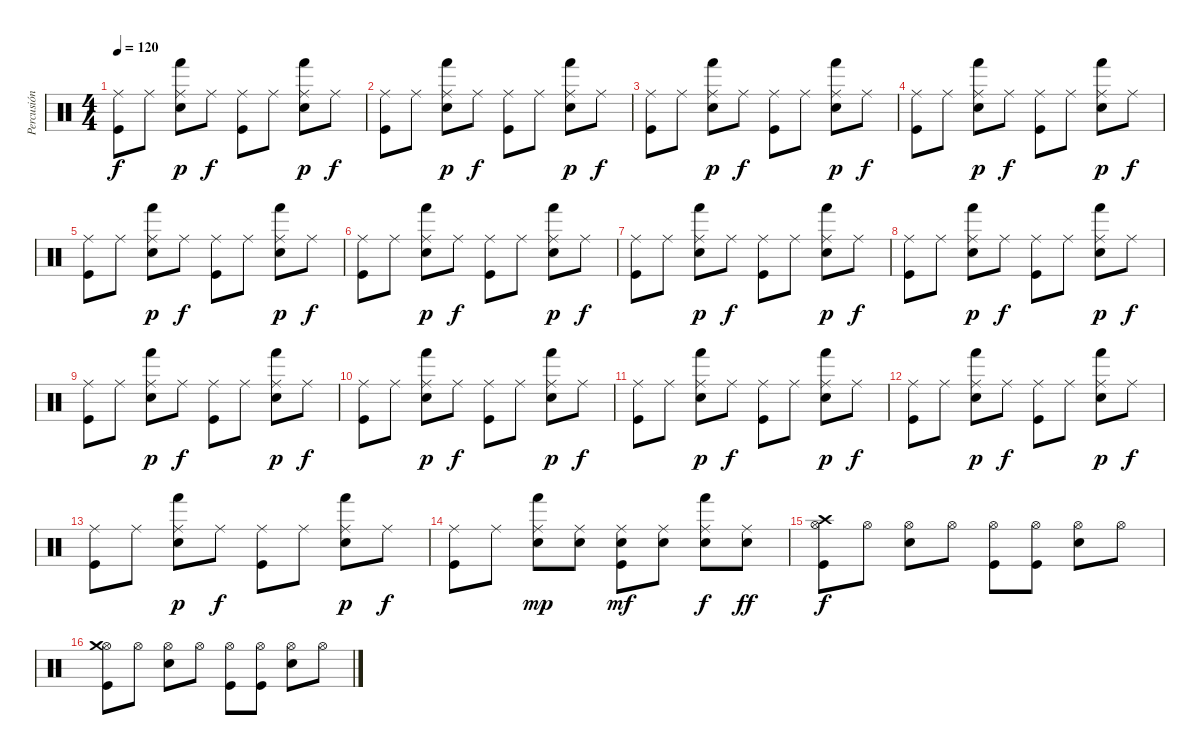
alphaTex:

\track ("Percusión" "Percusión") {instrument percussion}
\staff {score}
\articulation defaults
\ts (4 4)
\tempo 120
\clef neutral
\ks c
("Ride (middle)" "Kick (hit)").8{dy f} "Ride (middle)".8 ("Ride (middle)" "Hand (hit)" "Electric Snare (hit)").8{dy p} "Ride (middle)".8{dy f} ("Ride (middle)" "Kick (hit)").8 "Ride (middle)".8 ("Ride (middle)" "Hand (hit)" "Electric Snare (hit)").8{dy p} "Ride (middle)".8{dy f} |
("Ride (middle)" "Kick (hit)").8 "Ride (middle)".8 ("Ride (middle)" "Hand (hit)" "Electric Snare (hit)").8{dy p} "Ride (middle)".8{dy f} ("Ride (middle)" "Kick (hit)").8 "Ride (middle)".8 ("Ride (middle)" "Hand (hit)" "Electric Snare (hit)").8{dy p} "Ride (middle)".8{dy f} |
("Ride (middle)" "Kick (hit)").8 "Ride (middle)".8 ("Ride (middle)" "Hand (hit)" "Electric Snare (hit)").8{dy p} "Ride (middle)".8{dy f} ("Ride (middle)" "Kick (hit)").8 "Ride (middle)".8 ("Ride (middle)" "Hand (hit)" "Electric Snare (hit)").8{dy p} "Ride (middle)".8{dy f} |
("Ride (middle)" "Kick (hit)").8 "Ride (middle)".8 ("Ride (middle)" "Hand (hit)" "Electric Snare (hit)").8{dy p} "Ride (middle)".8{dy f} ("Ride (middle)" "Kick (hit)").8 "Ride (middle)".8 ("Ride (middle)" "Hand (hit)" "Electric Snare (hit)").8{dy p} "Ride (middle)".8{dy f} |
("Ride (middle)" "Kick (hit)").8 "Ride (middle)".8 ("Ride (middle)" "Hand (hit)" "Electric Snare (hit)").8{dy p} "Ride (middle)".8{dy f} ("Ride (middle)" "Kick (hit)").8 "Ride (middle)".8 ("Ride (middle)" "Hand (hit)" "Electric Snare (hit)").8{dy p} "Ride (middle)".8{dy f} |
("Ride (middle)" "Kick (hit)").8 "Ride (middle)".8 ("Ride (middle)" "Hand (hit)" "Electric Snare (hit)").8{dy p} "Ride (middle)".8{dy f} ("Ride (middle)" "Kick (hit)").8 "Ride (middle)".8 ("Ride (middle)" "Hand (hit)" "Electric Snare (hit)").8{dy p} "Ride (middle)".8{dy f} |
("Ride (middle)" "Kick (hit)").8 "Ride (middle)".8 ("Ride (middle)" "Hand (hit)" "Electric Snare (hit)").8{dy p} "Ride (middle)".8{dy f} ("Ride (middle)" "Kick (hit)").8 "Ride (middle)".8 ("Ride (middle)" "Hand (hit)" "Electric Snare (hit)").8{dy p} "Ride (middle)".8{dy f} |
("Ride (middle)" "Kick (hit)").8 "Ride (middle)".8 ("Ride (middle)" "Hand (hit)" "Electric Snare (hit)").8{dy p} "Ride (middle)".8{dy f} ("Ride (middle)" "Kick (hit)").8 "Ride (middle)".8 ("Ride (middle)" "Hand (hit)" "Electric Snare (hit)").8{dy p} "Ride (middle)".8{dy f} |
("Ride (middle)" "Kick (hit)").8 "Ride (middle)".8 ("Ride (middle)" "Hand (hit)" "Electric Snare (hit)").8{dy p} "Ride (middle)".8{dy f} ("Ride (middle)" "Kick (hit)").8 "Ride (middle)".8 ("Ride (middle)" "Hand (hit)" "Electric Snare (hit)").8{dy p} "Ride (middle)".8{dy f} |
("Ride (middle)" "Kick (hit)").8 "Ride (middle)".8 ("Ride (middle)" "Hand (hit)" "Electric Snare (hit)").8{dy p} "Ride (middle)".8{dy f} ("Ride (middle)" "Kick (hit)").8 "Ride (middle)".8 ("Ride (middle)" "Hand (hit)" "Electric Snare (hit)").8{dy p} "Ride (middle)".8{dy f} |
("Ride (middle)" "Kick (hit)").8 "Ride (middle)".8 ("Ride (middle)" "Hand (hit)" "Electric Snare (hit)").8{dy p} "Ride (middle)".8{dy f} ("Ride (middle)" "Kick (hit)").8 "Ride (middle)".8 ("Ride (middle)" "Hand (hit)" "Electric Snare (hit)").8{dy p} "Ride (middle)".8{dy f} |
("Ride (middle)" "Kick (hit)").8 "Ride (middle)".8 ("Ride (middle)" "Hand (hit)" "Electric Snare (hit)").8{dy p} "Ride (middle)".8{dy f} ("Ride (middle)" "Kick (hit)").8 "Ride (middle)".8 ("Ride (middle)" "Hand (hit)" "Electric Snare (hit)").8{dy p} "Ride (middle)".8{dy f} |
("Ride (middle)" "Kick (hit)").8 "Ride (middle)".8 ("Ride (middle)" "Hand (hit)" "Electric Snare (hit)").8{dy p} "Ride (middle)".8{dy f} ("Ride (middle)" "Kick (hit)").8 "Ride (middle)".8 ("Ride (middle)" "Hand (hit)" "Electric Snare (hit)").8{dy p} "Ride (middle)".8{dy f} |
("Ride (middle)" "Kick (hit)").8 "Ride (middle)".8 ("Ride (middle)" "Hand (hit)" "Snare (hit) 2").8{dy mp} ("Ride (middle)" "Snare (hit) 2").8 ("Ride (middle)" "Snare (hit) 2" "Kick (hit)").8{dy mf} ("Ride (middle)" "Snare (hit) 2").8 ("Ride (middle)" "Hand (hit)" "Snare (hit) 2").8{dy f} ("Ride (middle)" "Snare (hit) 2").8{dy ff} |
("Hi-Hat (open)" "Crash high (hit)" "Kick (hit)").8{dy f} "Hi-Hat (open)".8 ("Hi-Hat (open)" "Snare (hit) 2").8 "Hi-Hat (open)".8 ("Hi-Hat (open)" "Kick (hit)").8 ("Hi-Hat (open)" "Kick (hit)").8 ("Hi-Hat (open)" "Snare (hit) 2").8 "Hi-Hat (open)".8 |
("Hi-Hat (open)" "Crash medium (hit)" "Kick (hit)").8 "Hi-Hat (open)".8 ("Hi-Hat (open)" "Snare (hit) 2").8 "Hi-Hat (open)".8 ("Hi-Hat (open)" "Kick (hit)").8 ("Hi-Hat (open)" "Kick (hit)").8 ("Hi-Hat (open)" "Snare (hit) 2").8 "Hi-Hat (open)".8
